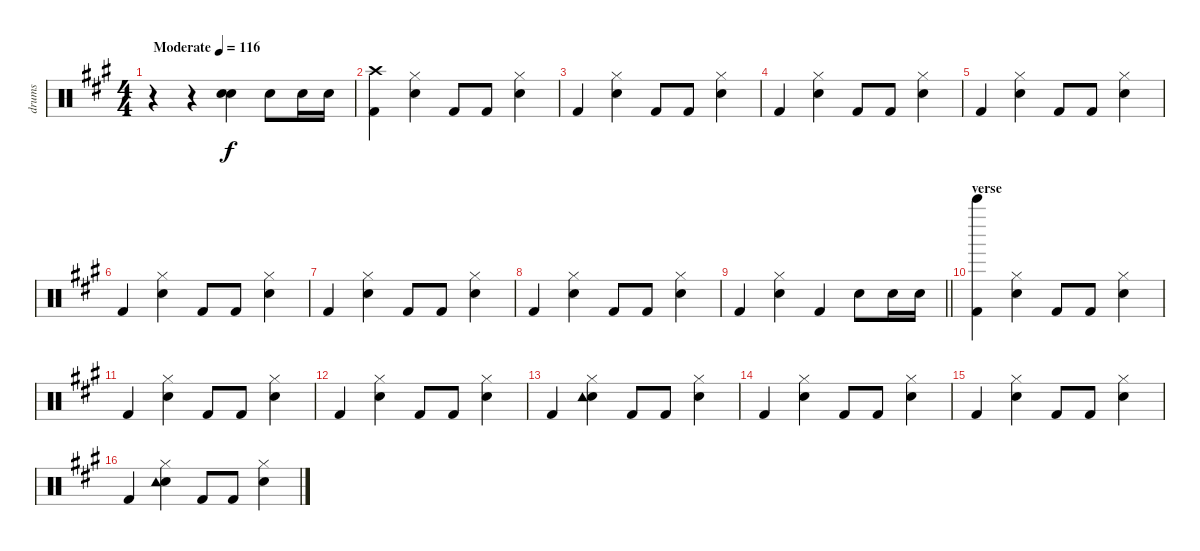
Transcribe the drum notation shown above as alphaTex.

\track ("drums" "drums") {instrument percussion}
\staff {score}
\articulation defaults
\ts (4 4)
\tempo (116 "Moderate")
\clef neutral
\ks a
r.4{dy f} r.4 ("Electric Snare (hit)" "Electric Snare (hit)").4 "Electric Snare (hit)".8 "Electric Snare (hit)".16 "Electric Snare (hit)".16 |
("Crash high (hit)" "Kick (hit) 2").4 ("Hi-Hat (closed)" "Electric Snare (hit)").4 "Kick (hit) 2".8 "Kick (hit) 2".8 ("Hi-Hat (closed)" "Electric Snare (hit)").4 |
"Kick (hit) 2".4 ("Hi-Hat (closed)" "Electric Snare (hit)").4 "Kick (hit) 2".8 "Kick (hit) 2".8 ("Hi-Hat (closed)" "Electric Snare (hit)").4 |
"Kick (hit) 2".4 ("Hi-Hat (closed)" "Electric Snare (hit)").4 "Kick (hit) 2".8 "Kick (hit) 2".8 ("Hi-Hat (closed)" "Electric Snare (hit)").4 |
"Kick (hit) 2".4 ("Hi-Hat (closed)" "Electric Snare (hit)").4 "Kick (hit) 2".8 "Kick (hit) 2".8 ("Hi-Hat (closed)" "Electric Snare (hit)").4 |
"Kick (hit) 2".4 ("Hi-Hat (closed)" "Electric Snare (hit)").4 "Kick (hit) 2".8 "Kick (hit) 2".8 ("Hi-Hat (closed)" "Electric Snare (hit)").4 |
"Kick (hit) 2".4 ("Hi-Hat (closed)" "Electric Snare (hit)").4 "Kick (hit) 2".8 "Kick (hit) 2".8 ("Hi-Hat (closed)" "Electric Snare (hit)").4 |
"Kick (hit) 2".4 ("Hi-Hat (closed)" "Electric Snare (hit)").4 "Kick (hit) 2".8 "Kick (hit) 2".8 ("Hi-Hat (closed)" "Electric Snare (hit)").4 |
\barLineRight lightlight "Kick (hit) 2".4
("Hi-Hat (closed)" "Electric Snare (hit)").4 "Kick (hit) 2".4 "Electric Snare (hit)".8 "Electric Snare (hit)".16 "Electric Snare (hit)".16 |
\section ("" "verse")
("Bell Tree (hit)" "Kick (hit) 2").4 ("Hi-Hat (closed)" "Electric Snare (hit)").4 "Kick (hit) 2".8 "Kick (hit) 2".8 ("Hi-Hat (closed)" "Electric Snare (hit)").4 |
"Kick (hit) 2".4 ("Hi-Hat (closed)" "Electric Snare (hit)").4 "Kick (hit) 2".8 "Kick (hit) 2".8 ("Hi-Hat (closed)" "Electric Snare (hit)").4 |
"Kick (hit) 2".4 ("Hi-Hat (closed)" "Electric Snare (hit)").4 "Kick (hit) 2".8 "Kick (hit) 2".8 ("Hi-Hat (closed)" "Electric Snare (hit)").4 |
"Kick (hit) 2".4 ("Hi-Hat (closed)" "Electric Snare (hit)" "Tambourine (hit)").4 "Kick (hit) 2".8 "Kick (hit) 2".8 ("Hi-Hat (closed)" "Electric Snare (hit)").4 |
"Kick (hit) 2".4 ("Hi-Hat (closed)" "Electric Snare (hit)").4 "Kick (hit) 2".8 "Kick (hit) 2".8 ("Hi-Hat (closed)" "Electric Snare (hit)").4 |
"Kick (hit) 2".4 ("Hi-Hat (closed)" "Electric Snare (hit)").4 "Kick (hit) 2".8 "Kick (hit) 2".8 ("Hi-Hat (closed)" "Electric Snare (hit)").4 |
"Kick (hit) 2".4 ("Hi-Hat (closed)" "Electric Snare (hit)" "Tambourine (hit)").4 "Kick (hit) 2".8 "Kick (hit) 2".8 ("Hi-Hat (closed)" "Electric Snare (hit)").4
